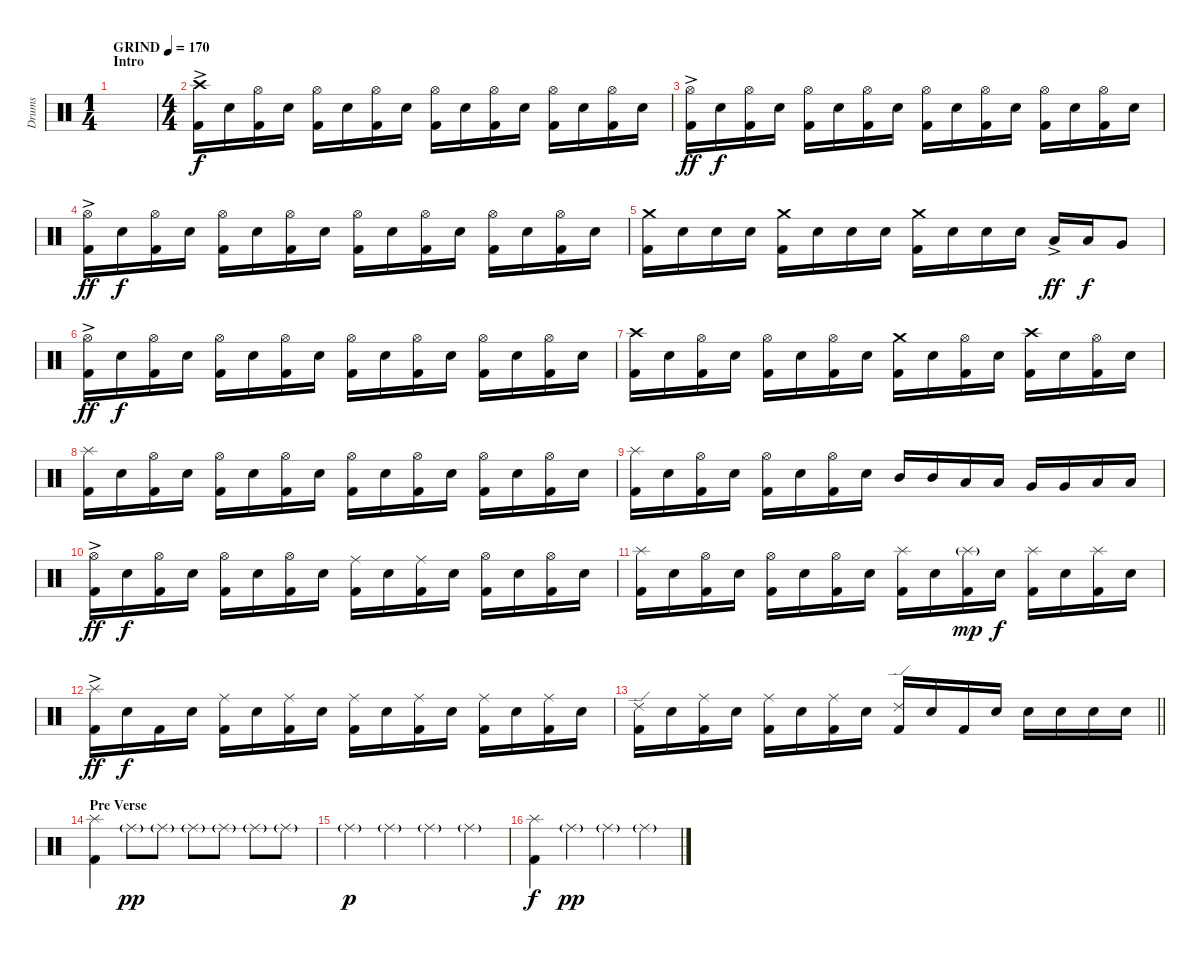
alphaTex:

\track ("Drums" "Drums") {instrument percussion}
\staff {score}
\articulation defaults
\ts (1 4)
\section ("" "Intro")
\tempo (170 "GRIND")
\clef neutral
\ks c
|
\ts (4 4)
("Crash high (hit)"{ac} "Kick (hit) 2").16 "Snare (hit) 2".16{dy f} ("Hi-Hat (open)" "Kick (hit) 2").16 "Snare (hit) 2".16 ("Hi-Hat (open)" "Kick (hit) 2").16 "Snare (hit) 2".16 ("Hi-Hat (open)" "Kick (hit) 2").16 "Snare (hit) 2".16 ("Hi-Hat (open)" "Kick (hit) 2").16 "Snare (hit) 2".16 ("Hi-Hat (open)" "Kick (hit) 2").16 "Snare (hit) 2".16 ("Hi-Hat (open)" "Kick (hit) 2").16 "Snare (hit) 2".16 ("Hi-Hat (open)" "Kick (hit) 2").16 "Snare (hit) 2".16 |
("Hi-Hat (open)"{ac} "Kick (hit) 2").16{dy ff} "Snare (hit) 2".16{dy f} ("Hi-Hat (open)" "Kick (hit) 2").16 "Snare (hit) 2".16 ("Hi-Hat (open)" "Kick (hit) 2").16 "Snare (hit) 2".16 ("Hi-Hat (open)" "Kick (hit) 2").16 "Snare (hit) 2".16 ("Hi-Hat (open)" "Kick (hit) 2").16 "Snare (hit) 2".16 ("Hi-Hat (open)" "Kick (hit) 2").16 "Snare (hit) 2".16 ("Hi-Hat (open)" "Kick (hit) 2").16 "Snare (hit) 2".16 ("Hi-Hat (open)" "Kick (hit) 2").16 "Snare (hit) 2".16 |
("Hi-Hat (open)"{ac} "Kick (hit) 2").16{dy ff} "Snare (hit) 2".16{dy f} ("Hi-Hat (open)" "Kick (hit) 2").16 "Snare (hit) 2".16 ("Hi-Hat (open)" "Kick (hit) 2").16 "Snare (hit) 2".16 ("Hi-Hat (open)" "Kick (hit) 2").16 "Snare (hit) 2".16 ("Hi-Hat (open)" "Kick (hit) 2").16 "Snare (hit) 2".16 ("Hi-Hat (open)" "Kick (hit) 2").16 "Snare (hit) 2".16 ("Hi-Hat (open)" "Kick (hit) 2").16 "Snare (hit) 2".16 ("Hi-Hat (open)" "Kick (hit) 2").16 "Snare (hit) 2".16 |
("Crash medium (hit)" "Kick (hit) 2").16 "Snare (hit) 2".16 "Snare (hit) 2".16 "Snare (hit) 2".16 ("Crash medium (hit)" "Kick (hit) 2").16 "Snare (hit) 2".16 "Snare (hit) 2".16 "Snare (hit) 2".16 ("Crash medium (hit)" "Kick (hit) 2").16 "Snare (hit) 2".16 "Snare (hit) 2".16 "Snare (hit) 2".16 "Low Tom (hit)"{ac}.16{dy ff} "Low Tom (hit)".16{dy f} "Very Low Tom (hit)".8 |
("Hi-Hat (open)"{ac} "Kick (hit) 2").16{dy ff} "Snare (hit) 2".16{dy f} ("Hi-Hat (open)" "Kick (hit) 2").16 "Snare (hit) 2".16 ("Hi-Hat (open)" "Kick (hit) 2").16 "Snare (hit) 2".16 ("Hi-Hat (open)" "Kick (hit) 2").16 "Snare (hit) 2".16 ("Hi-Hat (open)" "Kick (hit) 2").16 "Snare (hit) 2".16 ("Hi-Hat (open)" "Kick (hit) 2").16 "Snare (hit) 2".16 ("Hi-Hat (open)" "Kick (hit) 2").16 "Snare (hit) 2".16 ("Hi-Hat (open)" "Kick (hit) 2").16 "Snare (hit) 2".16 |
("Crash high (hit)" "Kick (hit) 2").16 "Snare (hit) 2".16 ("Hi-Hat (open)" "Kick (hit) 2").16 "Snare (hit) 2".16 ("Hi-Hat (open)" "Kick (hit) 2").16 "Snare (hit) 2".16 ("Hi-Hat (open)" "Kick (hit) 2").16 "Snare (hit) 2".16 ("Crash medium (hit)" "Kick (hit) 2").16 "Snare (hit) 2".16 ("Hi-Hat (open)" "Kick (hit) 2").16 "Snare (hit) 2".16 ("Crash high (hit)" "Kick (hit) 2").16 "Snare (hit) 2".16 ("Hi-Hat (open)" "Kick (hit) 2").16 "Snare (hit) 2".16 |
("Splash (hit)" "Kick (hit) 2").16 "Snare (hit) 2".16 ("Hi-Hat (open)" "Kick (hit) 2").16 "Snare (hit) 2".16 ("Hi-Hat (open)" "Kick (hit) 2").16 "Snare (hit) 2".16 ("Hi-Hat (open)" "Kick (hit) 2").16 "Snare (hit) 2".16 ("Hi-Hat (open)" "Kick (hit) 2").16 "Snare (hit) 2".16 ("Hi-Hat (open)" "Kick (hit) 2").16 "Snare (hit) 2".16 ("Hi-Hat (open)" "Kick (hit) 2").16 "Snare (hit) 2".16 ("Hi-Hat (open)" "Kick (hit) 2").16 "Snare (hit) 2".16 |
("Splash (hit)" "Kick (hit) 2").16 "Snare (hit) 2".16 ("Hi-Hat (open)" "Kick (hit) 2").16 "Snare (hit) 2".16 ("Hi-Hat (open)" "Kick (hit) 2").16 "Snare (hit) 2".16 ("Hi-Hat (open)" "Kick (hit) 2").16 "Snare (hit) 2".16 "Mid Tom (hit)".16 "Mid Tom (hit)".16 "Low Tom (hit)".16 "Low Tom (hit)".16 "Very Low Tom (hit)".16 "Very Low Tom (hit)".16 "Low Floor Tom (hit)".16 "Low Floor Tom (hit)".16 |
("Hi-Hat (open)"{ac} "Kick (hit) 2").16{dy ff} "Snare (hit) 2".16{dy f} ("Hi-Hat (open)" "Kick (hit) 2").16 "Snare (hit) 2".16 ("Hi-Hat (open)" "Kick (hit) 2").16 "Snare (hit) 2".16 ("Hi-Hat (open)" "Kick (hit) 2").16 "Snare (hit) 2".16 ("Ride (middle)" "Kick (hit) 2").16 "Snare (hit) 2".16 ("Ride (middle)" "Kick (hit) 2").16 "Snare (hit) 2".16 ("Hi-Hat (open)" "Kick (hit) 2").16 "Snare (hit) 2".16 ("Hi-Hat (open)" "Kick (hit) 2").16 "Snare (hit) 2".16 |
("Splash (hit)" "Kick (hit) 2").16 "Snare (hit) 2".16 ("Hi-Hat (open)" "Kick (hit) 2").16 "Snare (hit) 2".16 ("Hi-Hat (open)" "Kick (hit) 2").16 "Snare (hit) 2".16 ("Hi-Hat (open)" "Kick (hit) 2").16 "Snare (hit) 2".16 ("Splash (hit)" "Kick (hit) 2").16 "Snare (hit) 2".16 ("Splash (hit)"{g} "Kick (hit) 2").16{dy mp} "Snare (hit) 2".16{dy f} ("Splash (hit)" "Kick (hit) 2").16 "Snare (hit) 2".16 ("Splash (hit)" "Kick (hit) 2").16 "Snare (hit) 2".16 |
("Splash (hit)"{ac} "Kick (hit) 2").16{dy ff} "Snare (hit) 2".16{dy f} "Kick (hit) 2".16 "Snare (hit) 2".16 ("Ride (middle)" "Kick (hit) 2").16 "Snare (hit) 2".16 ("Ride (middle)" "Kick (hit) 2").16 "Snare (hit) 2".16 ("Ride (middle)" "Kick (hit) 2").16 "Snare (hit) 2".16 ("Ride (middle)" "Kick (hit) 2").16 "Snare (hit) 2".16 ("Ride (middle)" "Kick (hit) 2").16 "Snare (hit) 2".16 ("Ride (middle)" "Kick (hit) 2").16 "Snare (hit) 2".16 |
\barLineRight lightlight
("Ride (edge) 2" "Kick (hit) 2").16 "Snare (hit) 2".16 ("Ride (middle)" "Kick (hit) 2").16 "Snare (hit) 2".16 ("Ride (middle)" "Kick (hit) 2").16 "Snare (hit) 2".16 ("Ride (middle)" "Kick (hit) 2").16 "Snare (hit) 2".16 ("Ride (edge) 2" "Kick (hit) 2").16 "Snare (hit) 2".16 "Kick (hit) 2".16 "Snare (hit) 2".16 "Snare (hit) 2".16 "Snare (hit) 2".16 "Snare (hit) 2".16 "Snare (hit) 2".16 |
\section ("" "Pre Verse")
("Splash (hit)" "Kick (hit) 2").4 "Ride (middle)"{g}.8{dy pp} "Ride (middle)"{g}.8 "Ride (middle)"{g}.8 "Ride (middle)"{g}.8 "Ride (middle)"{g}.8 "Ride (middle)"{g}.8 |
"Ride (middle)"{g}.4{dy p} "Ride (middle)"{g}.4 "Ride (middle)"{g}.4 "Ride (middle)"{g}.4 |
("Splash (hit)" "Kick (hit) 2").4{dy f} "Ride (middle)"{g}.4{dy pp} "Ride (middle)"{g}.4 "Ride (middle)"{g}.4
